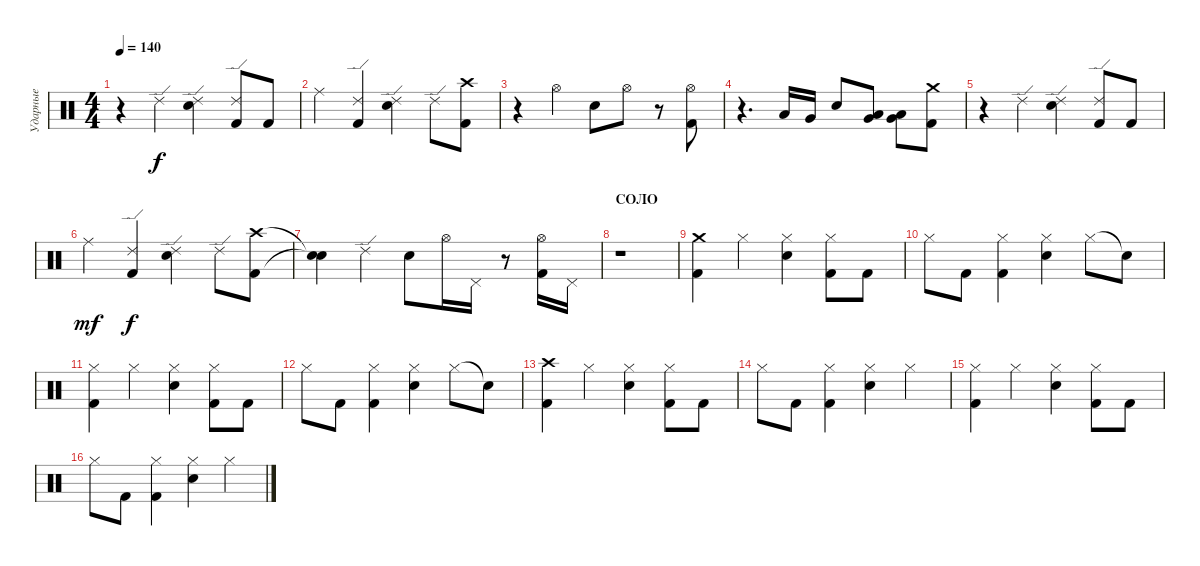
\track ("Ударные" "Ударные") {instrument percussion}
\staff {score}
\articulation defaults
\ts (4 4)
\tempo 140
\clef neutral
\ks c
r.4{dy f} "Ride (edge) 2".4 ("Snare (hit) 2" "Ride (edge) 2").4 ("Kick (hit) 2" "Ride (edge) 2").8 "Kick (hit) 2".8 |
"Ride (middle)".4 ("Kick (hit) 2" "Ride (edge) 2").4 ("Snare (hit) 2" "Ride (edge) 2").4 "Ride (edge) 2".8 ("Crash high (hit)" "Kick (hit) 2").8 |
r.4 "Hi-Hat (open)".4 "Snare (hit) 2".8 "Hi-Hat (open)".8 r.8 ("Hi-Hat (open)" "Kick (hit) 2").8 |
r.4{d} "Low Tom (hit)".16 "Very Low Tom (hit)".16 "Snare (hit) 2".8 ("Very Low Tom (hit)" "Low Tom (hit)").8 ("Low Floor Tom (hit)" "Very Low Tom (hit)").8 ("Crash medium (hit)" "Kick (hit) 2").8 |
r.4 "Ride (edge) 2".4 ("Snare (hit) 2" "Ride (edge) 2").4 ("Kick (hit) 2" "Ride (edge) 2").8 "Kick (hit) 2".8 |
"Ride (middle)".4{dy mf} ("Kick (hit) 2" "Ride (edge) 2").4{dy f} ("Snare (hit) 2" "Ride (edge) 2").4 "Ride (edge) 2".8 ("Crash high (hit)" "Kick (hit) 2").8 |
("Snare (hit)"{t} "Snare (hit)"{t}).4 "Ride (edge) 2".4 "Snare (hit) 2".8 "Hi-Hat (open)".16 "Pedal Hi-Hat (hit)".16 r.8 ("Hi-Hat (open)" "Kick (hit) 2").16 "Pedal Hi-Hat (hit)".16 |
\section ("" "СОЛО")
r.1 |
("Kick (hit) 2" "Crash medium (hit)").4 "Hi-Hat (closed)".4 ("Snare (hit) 2" "Hi-Hat (closed)").4 ("Kick (hit) 2" "Hi-Hat (closed)").8 "Kick (hit) 2".8 |
"Hi-Hat (closed)".8 "Kick (hit) 2".8 ("Kick (hit) 2" "Hi-Hat (closed)").4 ("Snare (hit) 2" "Hi-Hat (closed)").4 "Hi-Hat (closed)".8 "Snare (hit)"{t}.8 |
("Hi-Hat (closed)" "Kick (hit) 2").4 "Hi-Hat (closed)".4 ("Snare (hit) 2" "Hi-Hat (closed)").4 ("Kick (hit) 2" "Hi-Hat (closed)").8 "Kick (hit) 2".8 |
"Hi-Hat (closed)".8 "Kick (hit) 2".8 ("Kick (hit) 2" "Hi-Hat (closed)").4 ("Snare (hit) 2" "Hi-Hat (closed)").4 "Hi-Hat (closed)".8 "Snare (hit)"{t}.8 |
("Kick (hit) 2" "Crash high (hit)").4 "Hi-Hat (closed)".4 ("Snare (hit) 2" "Hi-Hat (closed)").4 ("Kick (hit) 2" "Hi-Hat (closed)").8 "Kick (hit) 2".8 |
"Hi-Hat (closed)".8 "Kick (hit) 2".8 ("Kick (hit) 2" "Hi-Hat (closed)").4 ("Snare (hit) 2" "Hi-Hat (closed)").4 "Hi-Hat (closed)".4 |
("Hi-Hat (closed)" "Kick (hit) 2").4 "Hi-Hat (closed)".4 ("Snare (hit) 2" "Hi-Hat (closed)").4 ("Kick (hit) 2" "Hi-Hat (closed)").8 "Kick (hit) 2".8 |
"Hi-Hat (closed)".8 "Kick (hit) 2".8 ("Kick (hit) 2" "Hi-Hat (closed)").4 ("Snare (hit) 2" "Hi-Hat (closed)").4 "Hi-Hat (closed)".4
